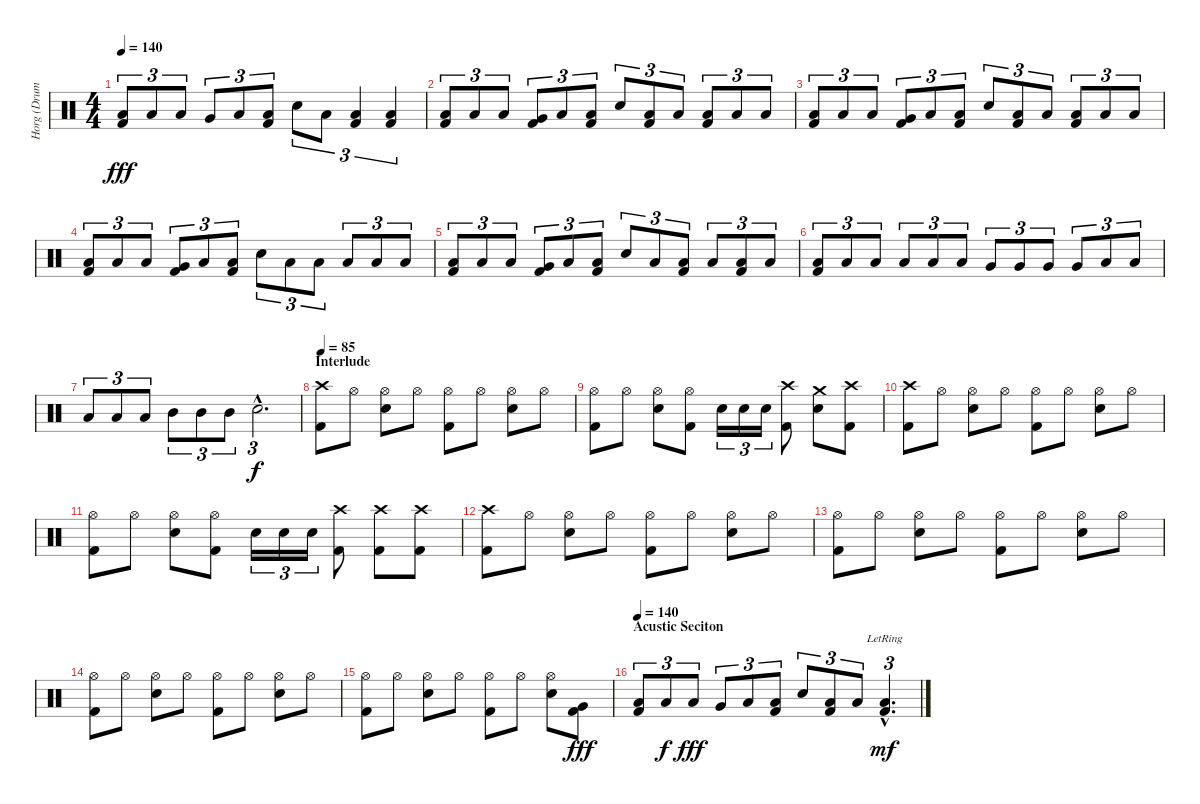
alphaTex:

\track ("Horg (Drums)" "Horg (Drum") {instrument percussion}
\staff {score}
\articulation defaults
\ts (4 4)
\tempo 140
\clef neutral
\ks c
("Low Floor Tom (hit)" "Kick (hit) 2").8{tu (3 2) dy fff} "Low Floor Tom (hit)".8{tu (3 2)} "Low Floor Tom (hit)".8{tu (3 2)} "Very Low Tom (hit)".8{tu (3 2)} "Low Floor Tom (hit)".8{tu (3 2)} ("Low Floor Tom (hit)" "Kick (hit) 2").8{tu (3 2)} "Electric Snare (hit)".8{tu (3 2)} "Low Floor Tom (hit)".8{tu (3 2)} ("Low Floor Tom (hit)" "Kick (hit) 2").4{tu (3 2)} ("Low Floor Tom (hit)" "Kick (hit) 2").4{tu (3 2)} |
("Low Floor Tom (hit)" "Kick (hit) 2").8{tu (3 2)} "Low Floor Tom (hit)".8{tu (3 2)} "Low Floor Tom (hit)".8{tu (3 2)} ("Very Low Tom (hit)" "Kick (hit) 2").8{tu (3 2)} "Low Floor Tom (hit)".8{tu (3 2)} ("Low Floor Tom (hit)" "Kick (hit) 2").8{tu (3 2)} "Electric Snare (hit)".8{tu (3 2)} ("Low Floor Tom (hit)" "Kick (hit) 2").8{tu (3 2)} "Low Floor Tom (hit)".8{tu (3 2)} ("Low Floor Tom (hit)" "Kick (hit) 2").8{tu (3 2)} "Low Floor Tom (hit)".8{tu (3 2)} "Low Floor Tom (hit)".8{tu (3 2)} |
("Low Floor Tom (hit)" "Kick (hit) 2").8{tu (3 2)} "Low Floor Tom (hit)".8{tu (3 2)} "Low Floor Tom (hit)".8{tu (3 2)} ("Very Low Tom (hit)" "Kick (hit) 2").8{tu (3 2)} "Low Floor Tom (hit)".8{tu (3 2)} ("Low Floor Tom (hit)" "Kick (hit) 2").8{tu (3 2)} "Electric Snare (hit)".8{tu (3 2)} ("Low Floor Tom (hit)" "Kick (hit) 2").8{tu (3 2)} "Low Floor Tom (hit)".8{tu (3 2)} ("Low Floor Tom (hit)" "Kick (hit) 2").8{tu (3 2)} "Low Floor Tom (hit)".8{tu (3 2)} "Low Floor Tom (hit)".8{tu (3 2)} |
("Low Floor Tom (hit)" "Kick (hit) 2").8{tu (3 2)} "Low Floor Tom (hit)".8{tu (3 2)} "Low Floor Tom (hit)".8{tu (3 2)} ("Very Low Tom (hit)" "Kick (hit) 2").8{tu (3 2)} "Low Floor Tom (hit)".8{tu (3 2)} ("Low Floor Tom (hit)" "Kick (hit) 2").8{tu (3 2)} "Electric Snare (hit)".8{tu (3 2)} "Low Floor Tom (hit)".8{tu (3 2)} "Low Floor Tom (hit)".8{tu (3 2)} "Low Floor Tom (hit)".8{tu (3 2)} "Low Floor Tom (hit)".8{tu (3 2)} "Low Floor Tom (hit)".8{tu (3 2)} |
("Low Floor Tom (hit)" "Kick (hit) 2").8{tu (3 2)} "Low Floor Tom (hit)".8{tu (3 2)} "Low Floor Tom (hit)".8{tu (3 2)} ("Very Low Tom (hit)" "Kick (hit) 2").8{tu (3 2)} "Low Floor Tom (hit)".8{tu (3 2)} ("Low Floor Tom (hit)" "Kick (hit) 2").8{tu (3 2)} "Electric Snare (hit)".8{tu (3 2)} "Low Floor Tom (hit)".8{tu (3 2)} ("Low Floor Tom (hit)" "Kick (hit) 2").8{tu (3 2)} "Low Floor Tom (hit)".8{tu (3 2)} ("Low Floor Tom (hit)" "Kick (hit) 2").8{tu (3 2)} "Low Floor Tom (hit)".8{tu (3 2)} |
("Low Floor Tom (hit)" "Kick (hit) 2").8{tu (3 2)} "Low Floor Tom (hit)".8{tu (3 2)} "Low Floor Tom (hit)".8{tu (3 2)} "Low Floor Tom (hit)".8{tu (3 2)} "Low Floor Tom (hit)".8{tu (3 2)} "Low Floor Tom (hit)".8{tu (3 2)} "Very Low Tom (hit)".8{tu (3 2)} "Very Low Tom (hit)".8{tu (3 2)} "Very Low Tom (hit)".8{tu (3 2)} "Very Low Tom (hit)".8{tu (3 2)} "Low Tom (hit)".8{tu (3 2)} "Low Tom (hit)".8{tu (3 2)} |
"Low Tom (hit)".8{tu (3 2)} "Low Tom (hit)".8{tu (3 2)} "Low Tom (hit)".8{tu (3 2)} "Mid Tom (hit)".8{tu (3 2)} "Mid Tom (hit)".8{tu (3 2)} "Mid Tom (hit)".8{tu (3 2)} "Electric Snare (hit)"{hac}.2{d tu (3 2) dy f} |
\section ("" "Interlude")
\tempo 85
("Crash high (hit)" "Kick (hit) 2").8 "Hi-Hat (open)".8 ("Hi-Hat (open)" "Electric Snare (hit)").8 "Hi-Hat (open)".8 ("Hi-Hat (open)" "Kick (hit) 2").8 "Hi-Hat (open)".8 ("Hi-Hat (open)" "Electric Snare (hit)").8 "Hi-Hat (open)".8 |
("Hi-Hat (open)" "Kick (hit) 2").8 "Hi-Hat (open)".8 ("Hi-Hat (open)" "Electric Snare (hit)").8 ("Hi-Hat (open)" "Kick (hit) 2").8 "Electric Snare (hit)".16{tu (3 2)} "Electric Snare (hit)".16{tu (3 2)} "Electric Snare (hit)".16{tu (3 2)} ("Crash high (hit)" "Kick (hit) 2").8 ("Crash medium (hit)" "Electric Snare (hit)").8 ("Crash high (hit)" "Kick (hit) 2").8 |
("Crash high (hit)" "Kick (hit) 2").8 "Hi-Hat (open)".8 ("Hi-Hat (open)" "Electric Snare (hit)").8 "Hi-Hat (open)".8 ("Hi-Hat (open)" "Kick (hit) 2").8 "Hi-Hat (open)".8 ("Hi-Hat (open)" "Electric Snare (hit)").8 "Hi-Hat (open)".8 |
("Hi-Hat (open)" "Kick (hit) 2").8 "Hi-Hat (open)".8 ("Hi-Hat (open)" "Electric Snare (hit)").8 ("Hi-Hat (open)" "Kick (hit) 2").8 "Electric Snare (hit)".16{tu (3 2)} "Electric Snare (hit)".16{tu (3 2)} "Electric Snare (hit)".16{tu (3 2)} ("Crash high (hit)" "Kick (hit) 2").8 ("Crash high (hit)" "Kick (hit) 2").8 ("Crash high (hit)" "Kick (hit) 2").8 |
("Crash high (hit)" "Kick (hit) 2").8 "Hi-Hat (open)".8 ("Hi-Hat (open)" "Electric Snare (hit)").8 "Hi-Hat (open)".8 ("Hi-Hat (open)" "Kick (hit) 2").8 "Hi-Hat (open)".8 ("Hi-Hat (open)" "Electric Snare (hit)").8 "Hi-Hat (open)".8 |
("Hi-Hat (open)" "Kick (hit) 2").8 "Hi-Hat (open)".8 ("Hi-Hat (open)" "Electric Snare (hit)").8 "Hi-Hat (open)".8 ("Hi-Hat (open)" "Kick (hit) 2").8 "Hi-Hat (open)".8 ("Hi-Hat (open)" "Electric Snare (hit)").8 "Hi-Hat (open)".8 |
("Hi-Hat (open)" "Kick (hit) 2").8 "Hi-Hat (open)".8 ("Hi-Hat (open)" "Electric Snare (hit)").8 "Hi-Hat (open)".8 ("Hi-Hat (open)" "Kick (hit) 2").8 "Hi-Hat (open)".8 ("Hi-Hat (open)" "Electric Snare (hit)").8 "Hi-Hat (open)".8 |
("Hi-Hat (open)" "Kick (hit) 2").8 "Hi-Hat (open)".8 ("Hi-Hat (open)" "Electric Snare (hit)").8 "Hi-Hat (open)".8 ("Hi-Hat (open)" "Kick (hit) 2").8 "Hi-Hat (open)".8 ("Hi-Hat (open)" "Electric Snare (hit)").8 ("Very Low Tom (hit)" "Kick (hit) 2").8{dy fff} |
\section ("" "Acustic Seciton")
\tempo 140
("Low Floor Tom (hit)" "Kick (hit) 2").8{tu (3 2)} "Low Floor Tom (hit)".8{tu (3 2) dy f} "Low Floor Tom (hit)".8{tu (3 2) dy fff} "Very Low Tom (hit)".8{tu (3 2)} "Low Floor Tom (hit)".8{tu (3 2)} ("Low Floor Tom (hit)" "Kick (hit) 2").8{tu (3 2)} "Electric Snare (hit)".8{tu (3 2)} ("Low Floor Tom (hit)" "Kick (hit) 2").8{tu (3 2)} "Low Floor Tom (hit)".8{tu (3 2)} ("Low Floor Tom (hit)"{hac} "Kick (hit) 2"{hac lr}).4{d tu (3 2) dy mf}
